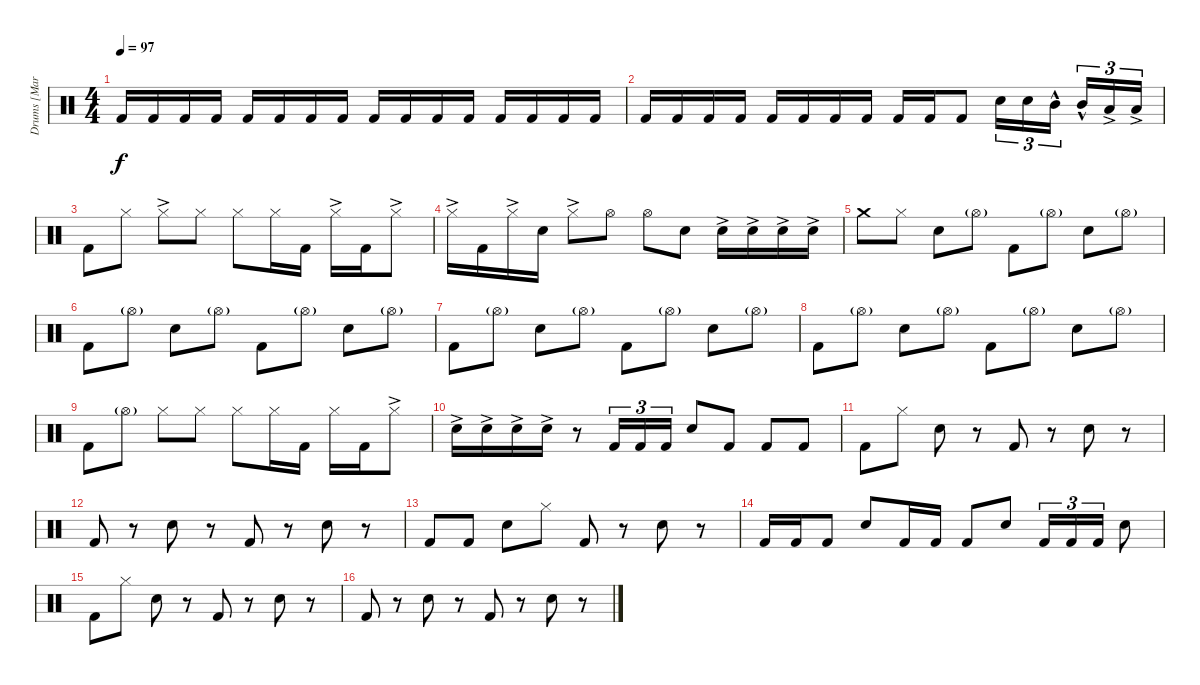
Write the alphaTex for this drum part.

\track ("Drums [Martin Lopez]" "Drums [Mar") {instrument percussion}
\staff {score}
\articulation defaults
\ts (4 4)
\tempo 97
\clef neutral
\ks c "Kick (hit) 2".16{dy f} "Kick (hit) 2".16 "Kick (hit) 2".16 "Kick (hit) 2".16 "Kick (hit) 2".16 "Kick (hit) 2".16 "Kick (hit) 2".16 "Kick (hit) 2".16 "Kick (hit) 2".16 "Kick (hit) 2".16 "Kick (hit) 2".16 "Kick (hit) 2".16 "Kick (hit) 2".16 "Kick (hit) 2".16 "Kick (hit) 2".16 "Kick (hit) 2".16
|
"Kick (hit) 2".16 "Kick (hit) 2".16 "Kick (hit) 2".16 "Kick (hit) 2".16 "Kick (hit) 2".16 "Kick (hit) 2".16 "Kick (hit) 2".16 "Kick (hit) 2".16 "Kick (hit) 2".16 "Kick (hit) 2".16 "Kick (hit) 2".8 "Snare (hit) 2".16{tu (3 2)} "Snare (hit) 2".16{tu (3 2)} "Mid Tom (hit)"{hac}.16{tu (3 2)} "Mid Tom (hit)"{hac}.16{tu (3 2)} "Low Tom (hit)"{ac}.16{tu (3 2)} "Low Tom (hit)"{ac}.16{tu (3 2)} |
"Kick (hit) 2".8 "Hi-Hat (closed)".8 "Hi-Hat (closed)"{ac}.8 "Hi-Hat (closed)".8 "Hi-Hat (closed)".8 "Hi-Hat (closed)".16 "Kick (hit) 2".16 "Hi-Hat (closed)"{ac}.16 "Kick (hit) 2".16 "Hi-Hat (closed)"{ac}.8 |
"Hi-Hat (closed)"{ac}.16 "Kick (hit) 2".16 "Hi-Hat (closed)"{ac}.16 "Snare (hit) 2".16 "Hi-Hat (closed)"{ac}.8 "Hi-Hat (open)".8 "Hi-Hat (open)".8 "Snare (hit) 2".8 "Snare (hit) 2"{ac}.16 "Snare (hit) 2"{ac}.16 "Snare (hit) 2"{ac}.16 "Snare (hit) 2"{ac}.16 |
"Crash medium (hit)".8 "Hi-Hat (closed)".8 "Snare (hit) 2".8 "Hi-Hat (open)"{g}.8 "Kick (hit) 2".8 "Hi-Hat (open)"{g}.8 "Snare (hit) 2".8 "Hi-Hat (open)"{g}.8 |
"Kick (hit) 2".8 "Hi-Hat (open)"{g}.8 "Snare (hit) 2".8 "Hi-Hat (open)"{g}.8 "Kick (hit) 2".8 "Hi-Hat (open)"{g}.8 "Snare (hit) 2".8 "Hi-Hat (open)"{g}.8 |
"Kick (hit) 2".8 "Hi-Hat (open)"{g}.8 "Snare (hit) 2".8 "Hi-Hat (open)"{g}.8 "Kick (hit) 2".8 "Hi-Hat (open)"{g}.8 "Snare (hit) 2".8 "Hi-Hat (open)"{g}.8 |
"Kick (hit) 2".8 "Hi-Hat (open)"{g}.8 "Snare (hit) 2".8 "Hi-Hat (open)"{g}.8 "Kick (hit) 2".8 "Hi-Hat (open)"{g}.8 "Snare (hit) 2".8 "Hi-Hat (open)"{g}.8 |
"Kick (hit) 2".8 "Hi-Hat (open)"{g}.8 "Hi-Hat (closed)".8 "Hi-Hat (closed)".8 "Hi-Hat (closed)".8 "Hi-Hat (closed)".16 "Kick (hit) 2".16 "Hi-Hat (closed)".16 "Kick (hit) 2".16 "Hi-Hat (closed)"{ac}.8 |
"Snare (hit) 2"{ac}.16 "Snare (hit) 2"{ac}.16 "Snare (hit) 2"{ac}.16 "Snare (hit) 2"{ac}.16 r.8 "Kick (hit) 2".16{tu (3 2)} "Kick (hit) 2".16{tu (3 2)} "Kick (hit) 2".16{tu (3 2)} "Snare (hit) 2".8 "Kick (hit) 2".8 "Kick (hit) 2".8 "Kick (hit) 2".8 |
"Kick (hit) 2".8 "Hi-Hat (closed)".8 "Snare (hit) 2".8 r.8 "Kick (hit) 2".8 r.8 "Snare (hit) 2".8 r.8 |
"Kick (hit) 2".8 r.8 "Snare (hit) 2".8 r.8 "Kick (hit) 2".8 r.8 "Snare (hit) 2".8 r.8 |
"Kick (hit) 2".8 "Kick (hit) 2".8 "Snare (hit) 2".8 "Hi-Hat (closed)".8 "Kick (hit) 2".8 r.8 "Snare (hit) 2".8 r.8 |
"Kick (hit) 2".16 "Kick (hit) 2".16 "Kick (hit) 2".8 "Snare (hit) 2".8 "Kick (hit) 2".16 "Kick (hit) 2".16 "Kick (hit) 2".8 "Snare (hit) 2".8 "Kick (hit) 2".16{tu (3 2)} "Kick (hit) 2".16{tu (3 2)} "Kick (hit) 2".16{tu (3 2)} "Snare (hit) 2".8 |
"Kick (hit) 2".8 "Hi-Hat (closed)".8 "Snare (hit) 2".8 r.8 "Kick (hit) 2".8 r.8 "Snare (hit) 2".8 r.8 |
"Kick (hit) 2".8 r.8 "Snare (hit) 2".8 r.8 "Kick (hit) 2".8 r.8 "Snare (hit) 2".8 r.8
